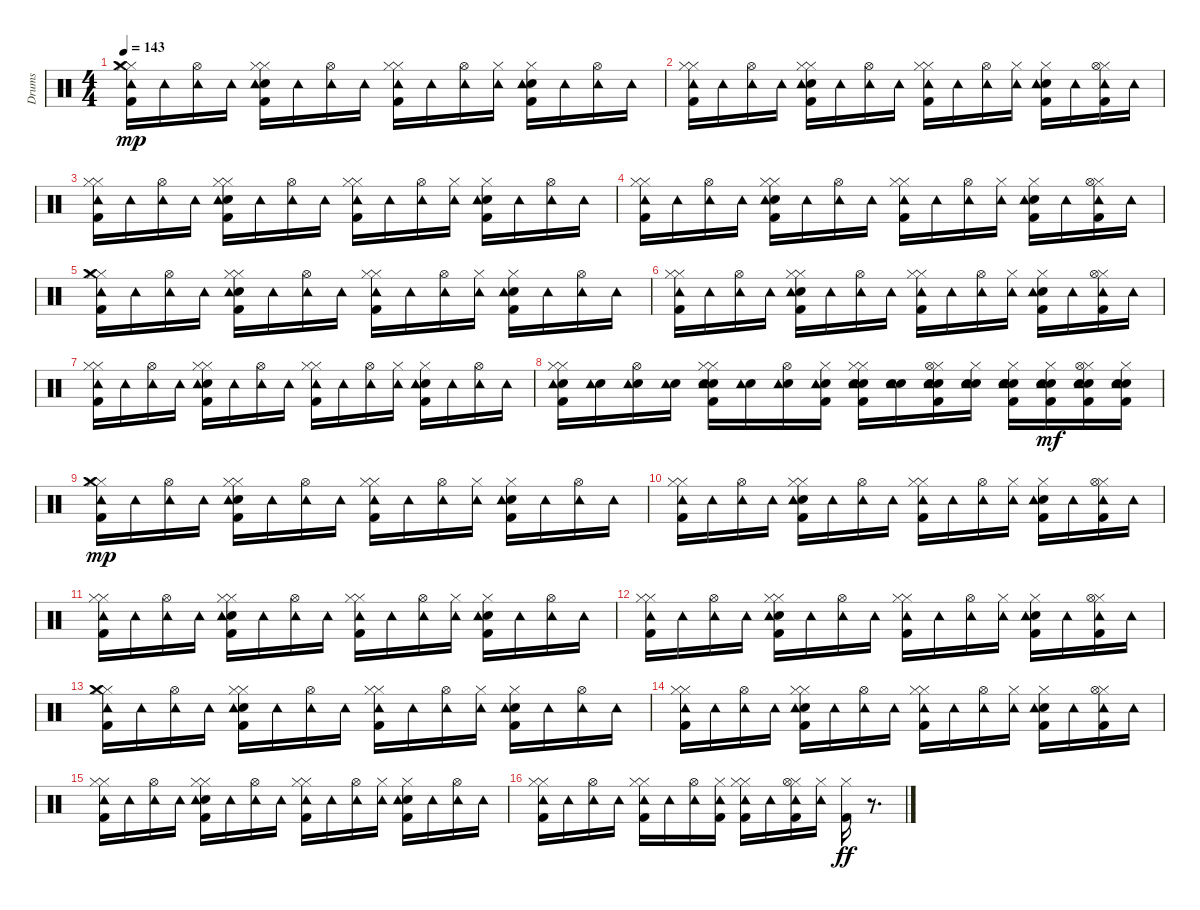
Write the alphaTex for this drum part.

\track ("Drums" "Drums") {instrument percussion}
\staff {score}
\articulation defaults
\ts (4 4)
\tempo 143
\clef neutral
\ks c
("Hi-Hat (closed)" "Kick (hit) 2" "Hi-Hat (closed)" "Tambourine (hit)" "Crash medium (hit)").16{dy mp} "Tambourine (hit)".16 ("Hi-Hat (open)" "Tambourine (hit)").16 "Tambourine (hit)".16 ("Hi-Hat (closed)" "Kick (hit) 2" "Hand Clap (hit)" "Hi-Hat (closed)" "Tambourine (hit)").16 "Tambourine (hit)".16 ("Hi-Hat (open)" "Tambourine (hit)").16 "Tambourine (hit)".16 ("Hi-Hat (closed)" "Kick (hit) 2" "Hi-Hat (closed)" "Tambourine (hit)").16 "Tambourine (hit)".16 ("Hi-Hat (open)" "Tambourine (hit)").16 ("Hi-Hat (closed)" "Tambourine (hit)").16 ("Hi-Hat (closed)" "Kick (hit) 2" "Hand Clap (hit)" "Tambourine (hit)").16 "Tambourine (hit)".16 ("Hi-Hat (open)" "Tambourine (hit)").16 "Tambourine (hit)".16 |
("Hi-Hat (closed)" "Kick (hit) 2" "Hi-Hat (closed)" "Tambourine (hit)").16 "Tambourine (hit)".16 ("Hi-Hat (open)" "Tambourine (hit)").16 "Tambourine (hit)".16 ("Hi-Hat (closed)" "Kick (hit) 2" "Hand Clap (hit)" "Hi-Hat (closed)" "Tambourine (hit)").16 "Tambourine (hit)".16 ("Hi-Hat (open)" "Tambourine (hit)").16 "Tambourine (hit)".16 ("Hi-Hat (closed)" "Kick (hit) 2" "Hi-Hat (closed)" "Tambourine (hit)").16 "Tambourine (hit)".16 ("Hi-Hat (open)" "Tambourine (hit)").16 ("Hi-Hat (closed)" "Tambourine (hit)").16 ("Hi-Hat (closed)" "Kick (hit) 2" "Hand Clap (hit)" "Tambourine (hit)").16 "Tambourine (hit)".16 ("Hi-Hat (closed)" "Kick (hit) 2" "Hi-Hat (open)" "Tambourine (hit)").16 "Tambourine (hit)".16 |
("Hi-Hat (closed)" "Kick (hit) 2" "Hi-Hat (closed)" "Tambourine (hit)").16 "Tambourine (hit)".16 ("Hi-Hat (open)" "Tambourine (hit)").16 "Tambourine (hit)".16 ("Hi-Hat (closed)" "Kick (hit) 2" "Hand Clap (hit)" "Hi-Hat (closed)" "Tambourine (hit)").16 "Tambourine (hit)".16 ("Hi-Hat (open)" "Tambourine (hit)").16 "Tambourine (hit)".16 ("Hi-Hat (closed)" "Kick (hit) 2" "Hi-Hat (closed)" "Tambourine (hit)").16 "Tambourine (hit)".16 ("Hi-Hat (open)" "Tambourine (hit)").16 ("Hi-Hat (closed)" "Tambourine (hit)").16 ("Hi-Hat (closed)" "Kick (hit) 2" "Hand Clap (hit)" "Tambourine (hit)").16 "Tambourine (hit)".16 ("Hi-Hat (open)" "Tambourine (hit)").16 "Tambourine (hit)".16 |
("Hi-Hat (closed)" "Kick (hit) 2" "Hi-Hat (closed)" "Tambourine (hit)").16 "Tambourine (hit)".16 ("Hi-Hat (open)" "Tambourine (hit)").16 "Tambourine (hit)".16 ("Hi-Hat (closed)" "Kick (hit) 2" "Hand Clap (hit)" "Hi-Hat (closed)" "Tambourine (hit)").16 "Tambourine (hit)".16 ("Hi-Hat (open)" "Tambourine (hit)").16 "Tambourine (hit)".16 ("Hi-Hat (closed)" "Kick (hit) 2" "Hi-Hat (closed)" "Tambourine (hit)").16 "Tambourine (hit)".16 ("Hi-Hat (open)" "Tambourine (hit)").16 ("Hi-Hat (closed)" "Tambourine (hit)").16 ("Hi-Hat (closed)" "Kick (hit) 2" "Hand Clap (hit)" "Tambourine (hit)").16 "Tambourine (hit)".16 ("Hi-Hat (closed)" "Kick (hit) 2" "Hi-Hat (open)" "Tambourine (hit)").16 "Tambourine (hit)".16 |
("Hi-Hat (closed)" "Kick (hit) 2" "Hi-Hat (closed)" "Tambourine (hit)" "Crash medium (hit)").16 "Tambourine (hit)".16 ("Hi-Hat (open)" "Tambourine (hit)").16 "Tambourine (hit)".16 ("Hi-Hat (closed)" "Kick (hit) 2" "Hand Clap (hit)" "Hi-Hat (closed)" "Tambourine (hit)").16 "Tambourine (hit)".16 ("Hi-Hat (open)" "Tambourine (hit)").16 "Tambourine (hit)".16 ("Hi-Hat (closed)" "Kick (hit) 2" "Hi-Hat (closed)" "Tambourine (hit)").16 "Tambourine (hit)".16 ("Hi-Hat (open)" "Tambourine (hit)").16 ("Hi-Hat (closed)" "Tambourine (hit)").16 ("Hi-Hat (closed)" "Kick (hit) 2" "Hand Clap (hit)" "Tambourine (hit)").16 "Tambourine (hit)".16 ("Hi-Hat (open)" "Tambourine (hit)").16 "Tambourine (hit)".16 |
("Hi-Hat (closed)" "Kick (hit) 2" "Hi-Hat (closed)" "Tambourine (hit)").16 "Tambourine (hit)".16 ("Hi-Hat (open)" "Tambourine (hit)").16 "Tambourine (hit)".16 ("Hi-Hat (closed)" "Kick (hit) 2" "Hand Clap (hit)" "Hi-Hat (closed)" "Tambourine (hit)").16 "Tambourine (hit)".16 ("Hi-Hat (open)" "Tambourine (hit)").16 "Tambourine (hit)".16 ("Hi-Hat (closed)" "Kick (hit) 2" "Hi-Hat (closed)" "Tambourine (hit)").16 "Tambourine (hit)".16 ("Hi-Hat (open)" "Tambourine (hit)").16 ("Hi-Hat (closed)" "Tambourine (hit)").16 ("Hi-Hat (closed)" "Kick (hit) 2" "Hand Clap (hit)" "Tambourine (hit)").16 "Tambourine (hit)".16 ("Hi-Hat (closed)" "Kick (hit) 2" "Hi-Hat (open)" "Tambourine (hit)").16 "Tambourine (hit)".16 |
("Hi-Hat (closed)" "Kick (hit) 2" "Hi-Hat (closed)" "Tambourine (hit)").16 "Tambourine (hit)".16 ("Hi-Hat (open)" "Tambourine (hit)").16 "Tambourine (hit)".16 ("Hi-Hat (closed)" "Kick (hit) 2" "Hand Clap (hit)" "Hi-Hat (closed)" "Tambourine (hit)").16 "Tambourine (hit)".16 ("Hi-Hat (open)" "Tambourine (hit)").16 "Tambourine (hit)".16 ("Hi-Hat (closed)" "Kick (hit) 2" "Hi-Hat (closed)" "Tambourine (hit)").16 "Tambourine (hit)".16 ("Hi-Hat (open)" "Tambourine (hit)").16 ("Hi-Hat (closed)" "Tambourine (hit)").16 ("Hi-Hat (closed)" "Kick (hit) 2" "Hand Clap (hit)" "Tambourine (hit)").16 "Tambourine (hit)".16 ("Hi-Hat (open)" "Tambourine (hit)").16 "Tambourine (hit)".16 |
("Hi-Hat (closed)" "Kick (hit) 2" "Snare (hit) 2" "Hi-Hat (closed)" "Tambourine (hit)").16 ("Snare (hit) 2" "Tambourine (hit)").16 ("Snare (hit) 2" "Hi-Hat (open)" "Tambourine (hit)").16 ("Snare (hit) 2" "Tambourine (hit)").16 ("Hi-Hat (closed)" "Kick (hit) 2" "Snare (hit) 2" "Hand Clap (hit)" "Hi-Hat (closed)" "Tambourine (hit)").16 ("Snare (hit) 2" "Tambourine (hit)").16 ("Snare (hit) 2" "Hi-Hat (open)" "Tambourine (hit)").16 ("Hi-Hat (closed)" "Kick (hit) 2" "Snare (hit) 2" "Tambourine (hit)").16 ("Hi-Hat (closed)" "Kick (hit) 2" "Snare (hit) 2" "Hi-Hat (closed)" "Tambourine (hit)" "Snare (hit) 2").16 ("Snare (hit) 2" "Tambourine (hit)" "Snare (hit) 2").16 ("Hi-Hat (closed)" "Kick (hit) 2" "Snare (hit) 2" "Hi-Hat (open)" "Tambourine (hit)" "Snare (hit) 2").16 ("Snare (hit) 2" "Hi-Hat (closed)" "Tambourine (hit)" "Snare (hit) 2").16 ("Hi-Hat (closed)" "Kick (hit) 2" "Snare (hit) 2" "Hand Clap (hit)" "Tambourine (hit)" "Snare (hit) 2").16 ("Hi-Hat (closed)" "Kick (hit) 2" "Snare (hit) 2" "Tambourine (hit)" "Snare (hit) 2").16{dy mf} ("Hi-Hat (closed)" "Kick (hit) 2" "Snare (hit) 2" "Hi-Hat (open)" "Tambourine (hit)" "Snare (hit) 2").16 ("Hi-Hat (closed)" "Kick (hit) 2" "Snare (hit) 2" "Tambourine (hit)" "Snare (hit) 2").16 |
("Hi-Hat (closed)" "Kick (hit) 2" "Hi-Hat (closed)" "Tambourine (hit)" "Crash medium (hit)").16{dy mp} "Tambourine (hit)".16 ("Hi-Hat (open)" "Tambourine (hit)").16 "Tambourine (hit)".16 ("Hi-Hat (closed)" "Kick (hit) 2" "Hand Clap (hit)" "Hi-Hat (closed)" "Tambourine (hit)").16 "Tambourine (hit)".16 ("Hi-Hat (open)" "Tambourine (hit)").16 "Tambourine (hit)".16 ("Hi-Hat (closed)" "Kick (hit) 2" "Hi-Hat (closed)" "Tambourine (hit)").16 "Tambourine (hit)".16 ("Hi-Hat (open)" "Tambourine (hit)").16 ("Hi-Hat (closed)" "Tambourine (hit)").16 ("Hi-Hat (closed)" "Kick (hit) 2" "Hand Clap (hit)" "Tambourine (hit)").16 "Tambourine (hit)".16 ("Hi-Hat (open)" "Tambourine (hit)").16 "Tambourine (hit)".16 |
("Hi-Hat (closed)" "Kick (hit) 2" "Hi-Hat (closed)" "Tambourine (hit)").16 "Tambourine (hit)".16 ("Hi-Hat (open)" "Tambourine (hit)").16 "Tambourine (hit)".16 ("Hi-Hat (closed)" "Kick (hit) 2" "Hand Clap (hit)" "Hi-Hat (closed)" "Tambourine (hit)").16 "Tambourine (hit)".16 ("Hi-Hat (open)" "Tambourine (hit)").16 "Tambourine (hit)".16 ("Hi-Hat (closed)" "Kick (hit) 2" "Hi-Hat (closed)" "Tambourine (hit)").16 "Tambourine (hit)".16 ("Hi-Hat (open)" "Tambourine (hit)").16 ("Hi-Hat (closed)" "Tambourine (hit)").16 ("Hi-Hat (closed)" "Kick (hit) 2" "Hand Clap (hit)" "Tambourine (hit)").16 "Tambourine (hit)".16 ("Hi-Hat (closed)" "Kick (hit) 2" "Hi-Hat (open)" "Tambourine (hit)").16 "Tambourine (hit)".16 |
("Hi-Hat (closed)" "Kick (hit) 2" "Hi-Hat (closed)" "Tambourine (hit)").16 "Tambourine (hit)".16 ("Hi-Hat (open)" "Tambourine (hit)").16 "Tambourine (hit)".16 ("Hi-Hat (closed)" "Kick (hit) 2" "Hand Clap (hit)" "Hi-Hat (closed)" "Tambourine (hit)").16 "Tambourine (hit)".16 ("Hi-Hat (open)" "Tambourine (hit)").16 "Tambourine (hit)".16 ("Hi-Hat (closed)" "Kick (hit) 2" "Hi-Hat (closed)" "Tambourine (hit)").16 "Tambourine (hit)".16 ("Hi-Hat (open)" "Tambourine (hit)").16 ("Hi-Hat (closed)" "Tambourine (hit)").16 ("Hi-Hat (closed)" "Kick (hit) 2" "Hand Clap (hit)" "Tambourine (hit)").16 "Tambourine (hit)".16 ("Hi-Hat (open)" "Tambourine (hit)").16 "Tambourine (hit)".16 |
("Hi-Hat (closed)" "Kick (hit) 2" "Hi-Hat (closed)" "Tambourine (hit)").16 "Tambourine (hit)".16 ("Hi-Hat (open)" "Tambourine (hit)").16 "Tambourine (hit)".16 ("Hi-Hat (closed)" "Kick (hit) 2" "Hand Clap (hit)" "Hi-Hat (closed)" "Tambourine (hit)").16 "Tambourine (hit)".16 ("Hi-Hat (open)" "Tambourine (hit)").16 "Tambourine (hit)".16 ("Hi-Hat (closed)" "Kick (hit) 2" "Hi-Hat (closed)" "Tambourine (hit)").16 "Tambourine (hit)".16 ("Hi-Hat (open)" "Tambourine (hit)").16 ("Hi-Hat (closed)" "Tambourine (hit)").16 ("Hi-Hat (closed)" "Kick (hit) 2" "Hand Clap (hit)" "Tambourine (hit)").16 "Tambourine (hit)".16 ("Hi-Hat (closed)" "Kick (hit) 2" "Hi-Hat (open)" "Tambourine (hit)").16 "Tambourine (hit)".16 |
("Hi-Hat (closed)" "Kick (hit) 2" "Hi-Hat (closed)" "Tambourine (hit)" "Crash medium (hit)").16 "Tambourine (hit)".16 ("Hi-Hat (open)" "Tambourine (hit)").16 "Tambourine (hit)".16 ("Hi-Hat (closed)" "Kick (hit) 2" "Hand Clap (hit)" "Hi-Hat (closed)" "Tambourine (hit)").16 "Tambourine (hit)".16 ("Hi-Hat (open)" "Tambourine (hit)").16 "Tambourine (hit)".16 ("Hi-Hat (closed)" "Kick (hit) 2" "Hi-Hat (closed)" "Tambourine (hit)").16 "Tambourine (hit)".16 ("Hi-Hat (open)" "Tambourine (hit)").16 ("Hi-Hat (closed)" "Tambourine (hit)").16 ("Hi-Hat (closed)" "Kick (hit) 2" "Hand Clap (hit)" "Tambourine (hit)").16 "Tambourine (hit)".16 ("Hi-Hat (open)" "Tambourine (hit)").16 "Tambourine (hit)".16 |
("Hi-Hat (closed)" "Kick (hit) 2" "Hi-Hat (closed)" "Tambourine (hit)").16 "Tambourine (hit)".16 ("Hi-Hat (open)" "Tambourine (hit)").16 "Tambourine (hit)".16 ("Hi-Hat (closed)" "Kick (hit) 2" "Hand Clap (hit)" "Hi-Hat (closed)" "Tambourine (hit)").16 "Tambourine (hit)".16 ("Hi-Hat (open)" "Tambourine (hit)").16 "Tambourine (hit)".16 ("Hi-Hat (closed)" "Kick (hit) 2" "Hi-Hat (closed)" "Tambourine (hit)").16 "Tambourine (hit)".16 ("Hi-Hat (open)" "Tambourine (hit)").16 ("Hi-Hat (closed)" "Tambourine (hit)").16 ("Hi-Hat (closed)" "Kick (hit) 2" "Hand Clap (hit)" "Tambourine (hit)").16 "Tambourine (hit)".16 ("Hi-Hat (closed)" "Kick (hit) 2" "Hi-Hat (open)" "Tambourine (hit)").16 "Tambourine (hit)".16 |
("Hi-Hat (closed)" "Kick (hit) 2" "Hi-Hat (closed)" "Tambourine (hit)").16 "Tambourine (hit)".16 ("Hi-Hat (open)" "Tambourine (hit)").16 "Tambourine (hit)".16 ("Hi-Hat (closed)" "Kick (hit) 2" "Hand Clap (hit)" "Hi-Hat (closed)" "Tambourine (hit)").16 "Tambourine (hit)".16 ("Hi-Hat (open)" "Tambourine (hit)").16 "Tambourine (hit)".16 ("Hi-Hat (closed)" "Kick (hit) 2" "Hi-Hat (closed)" "Tambourine (hit)").16 "Tambourine (hit)".16 ("Hi-Hat (open)" "Tambourine (hit)").16 ("Hi-Hat (closed)" "Tambourine (hit)").16 ("Hi-Hat (closed)" "Kick (hit) 2" "Hand Clap (hit)" "Tambourine (hit)").16 "Tambourine (hit)".16 ("Hi-Hat (open)" "Tambourine (hit)").16 "Tambourine (hit)".16 |
("Hi-Hat (closed)" "Kick (hit) 2" "Hi-Hat (closed)" "Tambourine (hit)").16 "Tambourine (hit)".16 ("Hi-Hat (open)" "Tambourine (hit)").16 "Tambourine (hit)".16 ("Hi-Hat (closed)" "Kick (hit) 2" "Hi-Hat (closed)" "Tambourine (hit)").16 "Tambourine (hit)".16 ("Hi-Hat (open)" "Tambourine (hit)").16 ("Hi-Hat (closed)" "Kick (hit) 2" "Tambourine (hit)").16 ("Hi-Hat (closed)" "Kick (hit) 2" "Hi-Hat (closed)" "Tambourine (hit)").16 "Tambourine (hit)".16 ("Hi-Hat (closed)" "Kick (hit) 2" "Hi-Hat (open)" "Tambourine (hit)").16 ("Hi-Hat (closed)" "Tambourine (hit)").16 ("Hi-Hat (closed)" "Kick (hit) 2").16{dy ff} r.8{d}
